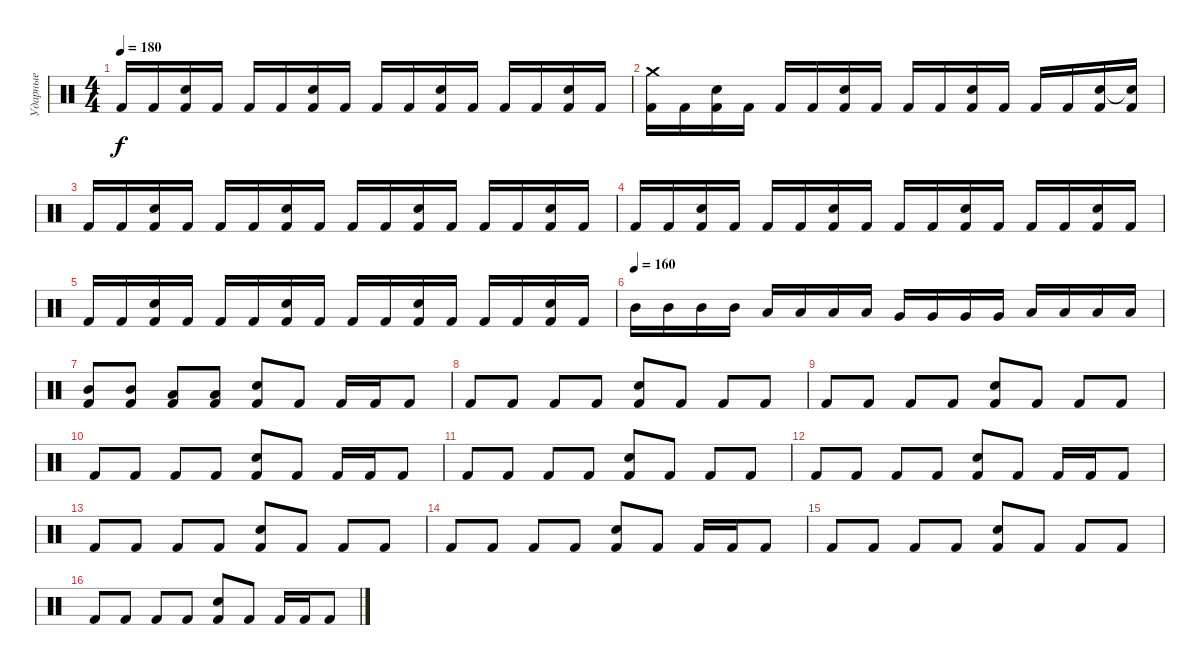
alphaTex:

\track ("Ударные" "Ударные") {instrument percussion}
\staff {score}
\articulation defaults
\ts (4 4)
\tempo 180
\clef neutral
\ks c "Kick (hit) 2".16{dy f} "Kick (hit) 2".16
("Snare (hit) 2" "Kick (hit) 2").16 "Kick (hit) 2".16 "Kick (hit) 2".16 "Kick (hit) 2".16 ("Snare (hit) 2" "Kick (hit) 2").16 "Kick (hit) 2".16 "Kick (hit) 2".16 "Kick (hit) 2".16 ("Snare (hit) 2" "Kick (hit) 2").16 "Kick (hit) 2".16 "Kick (hit) 2".16 "Kick (hit) 2".16 ("Snare (hit) 2" "Kick (hit) 2").16 "Kick (hit) 2".16 |
("Crash medium (hit)" "Kick (hit) 2").16 "Kick (hit) 2".16 ("Snare (hit) 2" "Kick (hit) 2").16 "Kick (hit) 2".16 "Kick (hit) 2".16 "Kick (hit) 2".16 ("Snare (hit) 2" "Kick (hit) 2").16 "Kick (hit) 2".16 "Kick (hit) 2".16 "Kick (hit) 2".16 ("Snare (hit) 2" "Kick (hit) 2").16 "Kick (hit) 2".16 "Kick (hit) 2".16 "Kick (hit) 2".16 ("Snare (hit) 2" "Kick (hit) 2").16 ("Snare (hit)"{t} "Kick (hit) 2").16 |
"Kick (hit) 2".16 "Kick (hit) 2".16 ("Snare (hit) 2" "Kick (hit) 2").16 "Kick (hit) 2".16 "Kick (hit) 2".16 "Kick (hit) 2".16 ("Snare (hit) 2" "Kick (hit) 2").16 "Kick (hit) 2".16 "Kick (hit) 2".16 "Kick (hit) 2".16 ("Snare (hit) 2" "Kick (hit) 2").16 "Kick (hit) 2".16 "Kick (hit) 2".16 "Kick (hit) 2".16 ("Snare (hit) 2" "Kick (hit) 2").16 "Kick (hit) 2".16 |
"Kick (hit) 2".16 "Kick (hit) 2".16 ("Snare (hit) 2" "Kick (hit) 2").16 "Kick (hit) 2".16 "Kick (hit) 2".16 "Kick (hit) 2".16 ("Snare (hit) 2" "Kick (hit) 2").16 "Kick (hit) 2".16 "Kick (hit) 2".16 "Kick (hit) 2".16 ("Snare (hit) 2" "Kick (hit) 2").16 "Kick (hit) 2".16 "Kick (hit) 2".16 "Kick (hit) 2".16 ("Snare (hit) 2" "Kick (hit) 2").16 "Kick (hit) 2".16 |
"Kick (hit) 2".16 "Kick (hit) 2".16 ("Snare (hit) 2" "Kick (hit) 2").16 "Kick (hit) 2".16 "Kick (hit) 2".16 "Kick (hit) 2".16 ("Snare (hit) 2" "Kick (hit) 2").16 "Kick (hit) 2".16 "Kick (hit) 2".16 "Kick (hit) 2".16 ("Snare (hit) 2" "Kick (hit) 2").16 "Kick (hit) 2".16 "Kick (hit) 2".16 "Kick (hit) 2".16 ("Snare (hit) 2" "Kick (hit) 2").16 "Kick (hit) 2".16 |
\tempo (160)
"Mid Tom (hit)".16 "Mid Tom (hit)".16 "Mid Tom (hit)".16 "Mid Tom (hit)".16 "Low Tom (hit)".16 "Low Tom (hit)".16 "Low Tom (hit)".16 "Low Tom (hit)".16 "Very Low Tom (hit)".16 "Very Low Tom (hit)".16 "Very Low Tom (hit)".16 "Very Low Tom (hit)".16 "Low Floor Tom (hit)".16 "Low Floor Tom (hit)".16 "Low Floor Tom (hit)".16 "Low Floor Tom (hit)".16 |
("Mid Tom (hit)" "Kick (hit) 2").8 ("Mid Tom (hit)" "Kick (hit) 2").8 ("Low Tom (hit)" "Kick (hit) 2").8 ("Low Tom (hit)" "Kick (hit) 2").8 ("Snare (hit) 2" "Kick (hit) 2").8 "Kick (hit) 2".8 "Kick (hit) 2".16 "Kick (hit) 2".16 "Kick (hit) 2".8 |
"Kick (hit) 2".8 "Kick (hit) 2".8 "Kick (hit) 2".8 "Kick (hit) 2".8 ("Snare (hit) 2" "Kick (hit) 2").8 "Kick (hit) 2".8 "Kick (hit) 2".8 "Kick (hit) 2".8 |
"Kick (hit) 2".8 "Kick (hit) 2".8 "Kick (hit) 2".8 "Kick (hit) 2".8 ("Snare (hit) 2" "Kick (hit) 2").8 "Kick (hit) 2".8 "Kick (hit) 2".8 "Kick (hit) 2".8 |
"Kick (hit) 2".8 "Kick (hit) 2".8 "Kick (hit) 2".8 "Kick (hit) 2".8 ("Snare (hit) 2" "Kick (hit) 2").8 "Kick (hit) 2".8 "Kick (hit) 2".16 "Kick (hit) 2".16 "Kick (hit) 2".8 |
"Kick (hit) 2".8 "Kick (hit) 2".8 "Kick (hit) 2".8 "Kick (hit) 2".8 ("Snare (hit) 2" "Kick (hit) 2").8 "Kick (hit) 2".8 "Kick (hit) 2".8 "Kick (hit) 2".8 |
"Kick (hit) 2".8 "Kick (hit) 2".8 "Kick (hit) 2".8 "Kick (hit) 2".8 ("Snare (hit) 2" "Kick (hit) 2").8 "Kick (hit) 2".8 "Kick (hit) 2".16 "Kick (hit) 2".16 "Kick (hit) 2".8 |
"Kick (hit) 2".8 "Kick (hit) 2".8 "Kick (hit) 2".8 "Kick (hit) 2".8 ("Snare (hit) 2" "Kick (hit) 2").8 "Kick (hit) 2".8 "Kick (hit) 2".8 "Kick (hit) 2".8 |
"Kick (hit) 2".8 "Kick (hit) 2".8 "Kick (hit) 2".8 "Kick (hit) 2".8 ("Snare (hit) 2" "Kick (hit) 2").8 "Kick (hit) 2".8 "Kick (hit) 2".16 "Kick (hit) 2".16 "Kick (hit) 2".8 |
"Kick (hit) 2".8 "Kick (hit) 2".8 "Kick (hit) 2".8 "Kick (hit) 2".8 ("Snare (hit) 2" "Kick (hit) 2").8 "Kick (hit) 2".8 "Kick (hit) 2".8 "Kick (hit) 2".8 |
"Kick (hit) 2".8 "Kick (hit) 2".8 "Kick (hit) 2".8 "Kick (hit) 2".8 ("Snare (hit) 2" "Kick (hit) 2").8 "Kick (hit) 2".8 "Kick (hit) 2".16 "Kick (hit) 2".16 "Kick (hit) 2".8
